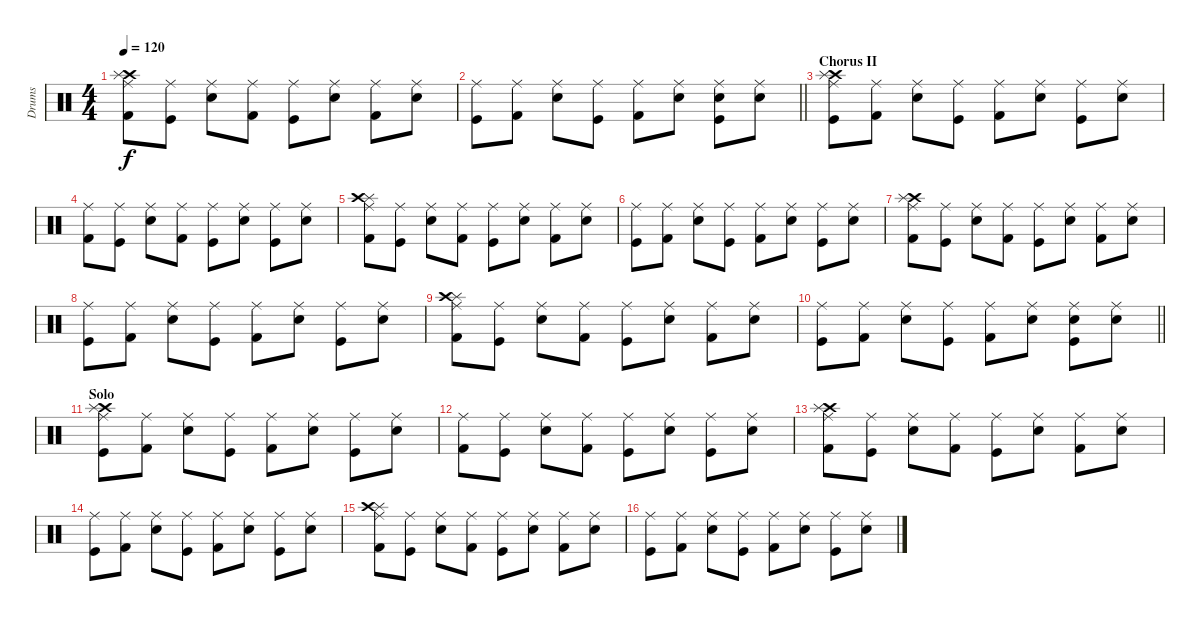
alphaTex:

\track ("Drums" "Drums") {instrument percussion}
\staff {score}
\articulation defaults
\ts (4 4)
\tempo 120
\clef neutral
\ks c
("Kick (hit) 2" "Crash high (hit)" "Splash (hit)" "Ride (middle)").8{dy f} ("Kick (hit)" "Ride (middle)").8 ("Snare (hit) 2" "Ride (middle)").8 ("Kick (hit) 2" "Ride (middle)").8 ("Kick (hit)" "Ride (middle)").8 ("Snare (hit) 2" "Ride (middle)").8 ("Kick (hit) 2" "Ride (middle)").8 ("Snare (hit) 2" "Ride (middle)").8 |
\barLineRight lightlight
("Kick (hit)" "Ride (middle)").8 ("Kick (hit) 2" "Ride (middle)").8 ("Snare (hit) 2" "Ride (middle)").8 ("Kick (hit)" "Ride (middle)").8 ("Kick (hit) 2" "Ride (middle)").8 ("Snare (hit) 2" "Ride (middle)").8 ("Kick (hit)" "Snare (hit) 2" "Ride (middle)").8 ("Snare (hit) 2" "Ride (middle)").8 |
\section ("" "Chorus II")
("Kick (hit)" "Crash high (hit)" "Splash (hit)" "Ride (middle)").8 ("Kick (hit) 2" "Ride (middle)").8 ("Snare (hit) 2" "Ride (middle)").8 ("Kick (hit)" "Ride (middle)").8 ("Kick (hit) 2" "Ride (middle)").8 ("Snare (hit) 2" "Ride (middle)").8 ("Kick (hit)" "Ride (middle)").8 ("Snare (hit) 2" "Ride (middle)").8 |
("Kick (hit) 2" "Ride (middle)").8 ("Kick (hit)" "Ride (middle)").8 ("Snare (hit) 2" "Ride (middle)").8 ("Kick (hit) 2" "Ride (middle)").8 ("Kick (hit)" "Ride (middle)").8 ("Snare (hit) 2" "Ride (middle)").8 ("Kick (hit)" "Ride (middle)").8 ("Snare (hit) 2" "Ride (middle)").8 |
("Kick (hit) 2" "Splash (hit)" "Crash high (hit)" "Ride (middle)").8 ("Kick (hit)" "Ride (middle)").8 ("Snare (hit) 2" "Ride (middle)").8 ("Kick (hit) 2" "Ride (middle)").8 ("Kick (hit)" "Ride (middle)").8 ("Snare (hit) 2" "Ride (middle)").8 ("Kick (hit) 2" "Ride (middle)").8 ("Snare (hit) 2" "Ride (middle)").8 |
("Kick (hit)" "Ride (middle)").8 ("Kick (hit) 2" "Ride (middle)").8 ("Snare (hit) 2" "Ride (middle)").8 ("Kick (hit)" "Ride (middle)").8 ("Kick (hit) 2" "Ride (middle)").8 ("Snare (hit) 2" "Ride (middle)").8 ("Kick (hit)" "Ride (middle)").8 ("Snare (hit) 2" "Ride (middle)").8 |
("Kick (hit) 2" "Crash high (hit)" "Splash (hit)" "Ride (middle)").8 ("Kick (hit)" "Ride (middle)").8 ("Snare (hit) 2" "Ride (middle)").8 ("Kick (hit) 2" "Ride (middle)").8 ("Kick (hit)" "Ride (middle)").8 ("Snare (hit) 2" "Ride (middle)").8 ("Kick (hit) 2" "Ride (middle)").8 ("Snare (hit) 2" "Ride (middle)").8 |
("Kick (hit)" "Ride (middle)").8 ("Kick (hit) 2" "Ride (middle)").8 ("Snare (hit) 2" "Ride (middle)").8 ("Kick (hit)" "Ride (middle)").8 ("Kick (hit) 2" "Ride (middle)").8 ("Snare (hit) 2" "Ride (middle)").8 ("Kick (hit)" "Ride (middle)").8 ("Snare (hit) 2" "Ride (middle)").8 |
("Kick (hit) 2" "Splash (hit)" "Crash high (hit)" "Ride (middle)").8 ("Kick (hit)" "Ride (middle)").8 ("Snare (hit) 2" "Ride (middle)").8 ("Kick (hit) 2" "Ride (middle)").8 ("Kick (hit)" "Ride (middle)").8 ("Snare (hit) 2" "Ride (middle)").8 ("Kick (hit) 2" "Ride (middle)").8 ("Snare (hit) 2" "Ride (middle)").8 |
\barLineRight lightlight
("Kick (hit)" "Ride (middle)").8 ("Kick (hit) 2" "Ride (middle)").8 ("Snare (hit) 2" "Ride (middle)").8 ("Kick (hit)" "Ride (middle)").8 ("Kick (hit) 2" "Ride (middle)").8 ("Snare (hit) 2" "Ride (middle)").8 ("Kick (hit)" "Snare (hit) 2" "Ride (middle)").8 ("Snare (hit) 2" "Ride (middle)").8 |
\section ("" "Solo")
("Kick (hit)" "Crash high (hit)" "Splash (hit)" "Ride (middle)").8 ("Kick (hit) 2" "Ride (middle)").8 ("Snare (hit) 2" "Ride (middle)").8 ("Kick (hit)" "Ride (middle)").8 ("Kick (hit) 2" "Ride (middle)").8 ("Snare (hit) 2" "Ride (middle)").8 ("Kick (hit)" "Ride (middle)").8 ("Snare (hit) 2" "Ride (middle)").8 |
("Kick (hit) 2" "Ride (middle)").8 ("Kick (hit)" "Ride (middle)").8 ("Snare (hit) 2" "Ride (middle)").8 ("Kick (hit) 2" "Ride (middle)").8 ("Kick (hit)" "Ride (middle)").8 ("Snare (hit) 2" "Ride (middle)").8 ("Kick (hit)" "Ride (middle)").8 ("Snare (hit) 2" "Ride (middle)").8 |
("Kick (hit) 2" "Crash high (hit)" "Splash (hit)" "Ride (middle)").8 ("Kick (hit)" "Ride (middle)").8 ("Snare (hit) 2" "Ride (middle)").8 ("Kick (hit) 2" "Ride (middle)").8 ("Kick (hit)" "Ride (middle)").8 ("Snare (hit) 2" "Ride (middle)").8 ("Kick (hit) 2" "Ride (middle)").8 ("Snare (hit) 2" "Ride (middle)").8 |
("Kick (hit)" "Ride (middle)").8 ("Kick (hit) 2" "Ride (middle)").8 ("Snare (hit) 2" "Ride (middle)").8 ("Kick (hit)" "Ride (middle)").8 ("Kick (hit) 2" "Ride (middle)").8 ("Snare (hit) 2" "Ride (middle)").8 ("Kick (hit)" "Ride (middle)").8 ("Snare (hit) 2" "Ride (middle)").8 |
("Kick (hit) 2" "Splash (hit)" "Crash high (hit)" "Ride (middle)").8 ("Kick (hit)" "Ride (middle)").8 ("Snare (hit) 2" "Ride (middle)").8 ("Kick (hit) 2" "Ride (middle)").8 ("Kick (hit)" "Ride (middle)").8 ("Snare (hit) 2" "Ride (middle)").8 ("Kick (hit) 2" "Ride (middle)").8 ("Snare (hit) 2" "Ride (middle)").8 |
("Kick (hit)" "Ride (middle)").8 ("Kick (hit) 2" "Ride (middle)").8 ("Snare (hit) 2" "Ride (middle)").8 ("Kick (hit)" "Ride (middle)").8 ("Kick (hit) 2" "Ride (middle)").8 ("Snare (hit) 2" "Ride (middle)").8 ("Kick (hit)" "Ride (middle)").8 ("Snare (hit) 2" "Ride (middle)").8
